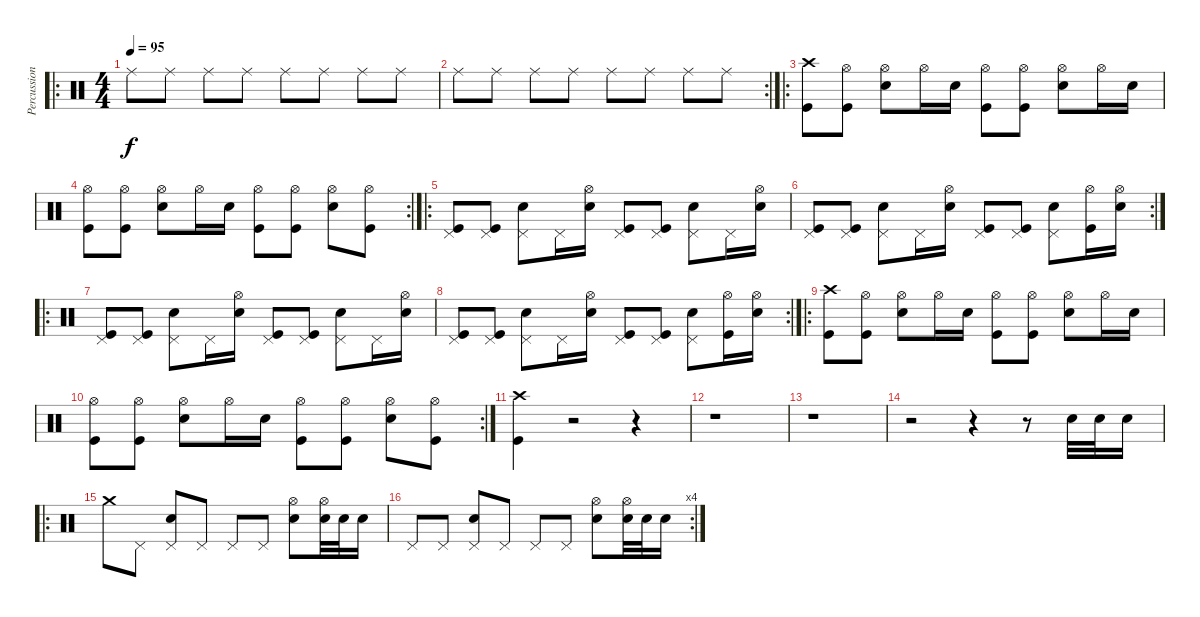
\track ("Percussions" "Percussion") {instrument percussion}
\staff {score}
\articulation defaults
\ro
\ts (4 4)
\tempo 95
\clef neutral
\ks c "Ride (middle)".8{dy f} "Ride (middle)".8 "Ride (middle)".8 "Ride (middle)".8 "Ride (middle)".8 "Ride (middle)".8 "Ride (middle)".8 "Ride (middle)".8
|
\rc 2 "Ride (middle)".8 "Ride (middle)".8 "Ride (middle)".8 "Ride (middle)".8 "Ride (middle)".8 "Ride (middle)".8 "Ride (middle)".8 "Ride (middle)".8
|
\ro
("Crash high (hit)" "Kick (hit)").8 ("Hi-Hat (open)" "Kick (hit)").8 ("Hi-Hat (open)" "Snare (hit) 2").8 "Hi-Hat (open)".16 "Snare (hit) 2".16 ("Hi-Hat (open)" "Kick (hit)").8 ("Hi-Hat (open)" "Kick (hit)").8 ("Hi-Hat (open)" "Snare (hit) 2").8 "Hi-Hat (open)".16 "Snare (hit) 2".16 |
\rc 2
("Hi-Hat (open)" "Kick (hit)").8 ("Hi-Hat (open)" "Kick (hit)").8 ("Hi-Hat (open)" "Snare (hit) 2").8 "Hi-Hat (open)".16 "Snare (hit) 2".16 ("Hi-Hat (open)" "Kick (hit)").8 ("Hi-Hat (open)" "Kick (hit)").8 ("Hi-Hat (open)" "Snare (hit) 2").8 ("Hi-Hat (open)" "Kick (hit)").8 |
\ro
("Pedal Hi-Hat (hit)" "Kick (hit)").8 ("Pedal Hi-Hat (hit)" "Kick (hit)").8 ("Pedal Hi-Hat (hit)" "Snare (hit) 2").8 "Pedal Hi-Hat (hit)".16 ("Hi-Hat (open)" "Snare (hit) 2").16 ("Pedal Hi-Hat (hit)" "Kick (hit)").8 ("Pedal Hi-Hat (hit)" "Kick (hit)").8 ("Pedal Hi-Hat (hit)" "Snare (hit) 2").8 "Pedal Hi-Hat (hit)".16 ("Hi-Hat (open)" "Snare (hit) 2").16 |
\rc 2
("Pedal Hi-Hat (hit)" "Kick (hit)").8 ("Pedal Hi-Hat (hit)" "Kick (hit)").8 ("Pedal Hi-Hat (hit)" "Snare (hit) 2").8 "Pedal Hi-Hat (hit)".16 ("Hi-Hat (open)" "Snare (hit) 2").16 ("Pedal Hi-Hat (hit)" "Kick (hit)").8 ("Pedal Hi-Hat (hit)" "Kick (hit)").8 ("Pedal Hi-Hat (hit)" "Snare (hit) 2").8 ("Hi-Hat (open)" "Kick (hit)").16 ("Hi-Hat (open)" "Snare (hit) 2").16 |
\ro
("Pedal Hi-Hat (hit)" "Kick (hit)").8 ("Pedal Hi-Hat (hit)" "Kick (hit)").8 ("Pedal Hi-Hat (hit)" "Snare (hit) 2").8 "Pedal Hi-Hat (hit)".16 ("Hi-Hat (open)" "Snare (hit) 2").16 ("Pedal Hi-Hat (hit)" "Kick (hit)").8 ("Pedal Hi-Hat (hit)" "Kick (hit)").8 ("Pedal Hi-Hat (hit)" "Snare (hit) 2").8 "Pedal Hi-Hat (hit)".16 ("Hi-Hat (open)" "Snare (hit) 2").16 |
\rc 2
("Pedal Hi-Hat (hit)" "Kick (hit)").8 ("Pedal Hi-Hat (hit)" "Kick (hit)").8 ("Pedal Hi-Hat (hit)" "Snare (hit) 2").8 "Pedal Hi-Hat (hit)".16 ("Hi-Hat (open)" "Snare (hit) 2").16 ("Pedal Hi-Hat (hit)" "Kick (hit)").8 ("Pedal Hi-Hat (hit)" "Kick (hit)").8 ("Pedal Hi-Hat (hit)" "Snare (hit) 2").8 ("Hi-Hat (open)" "Kick (hit)").16 ("Hi-Hat (open)" "Snare (hit) 2").16 |
\ro
("Crash high (hit)" "Kick (hit)").8 ("Hi-Hat (open)" "Kick (hit)").8 ("Hi-Hat (open)" "Snare (hit) 2").8 "Hi-Hat (open)".16 "Snare (hit) 2".16 ("Hi-Hat (open)" "Kick (hit)").8 ("Hi-Hat (open)" "Kick (hit)").8 ("Hi-Hat (open)" "Snare (hit) 2").8 "Hi-Hat (open)".16 "Snare (hit) 2".16 |
\rc 2
("Hi-Hat (open)" "Kick (hit)").8 ("Hi-Hat (open)" "Kick (hit)").8 ("Hi-Hat (open)" "Snare (hit) 2").8 "Hi-Hat (open)".16 "Snare (hit) 2".16 ("Hi-Hat (open)" "Kick (hit)").8 ("Hi-Hat (open)" "Kick (hit)").8 ("Hi-Hat (open)" "Snare (hit) 2").8 ("Hi-Hat (open)" "Kick (hit)").8 |
("Crash high (hit)" "Kick (hit)").4 r.2 r.4 |
r.1 |
r.1 |
r.2 r.4 r.8 "Snare (hit) 2".32 "Snare (hit) 2".32 "Snare (hit) 2".16 |
\ro "Crash medium (hit)".8 "Pedal Hi-Hat (hit)".8
("Pedal Hi-Hat (hit)" "Snare (hit) 2").8 "Pedal Hi-Hat (hit)".8 "Pedal Hi-Hat (hit)".8 "Pedal Hi-Hat (hit)".8 ("Hi-Hat (open)" "Snare (hit) 2").8 ("Hi-Hat (open)" "Snare (hit) 2").32 "Snare (hit) 2".32 "Snare (hit) 2".16 |
\rc 4 "Pedal Hi-Hat (hit)".8 "Pedal Hi-Hat (hit)".8
("Pedal Hi-Hat (hit)" "Snare (hit) 2").8 "Pedal Hi-Hat (hit)".8 "Pedal Hi-Hat (hit)".8 "Pedal Hi-Hat (hit)".8 ("Hi-Hat (open)" "Snare (hit) 2").8 ("Hi-Hat (open)" "Snare (hit) 2").32 "Snare (hit) 2".32 "Snare (hit) 2".16
